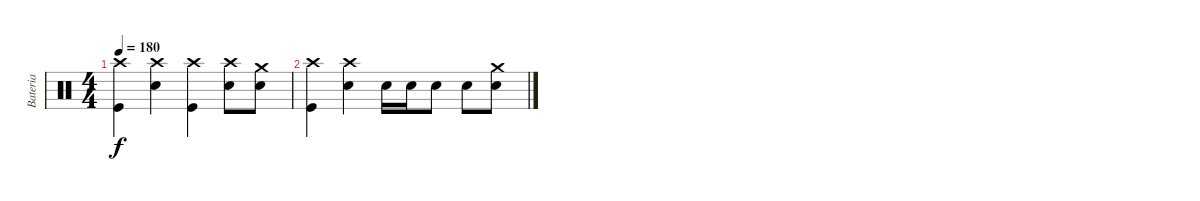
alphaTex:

\track ("Bateria" "Bateria") {instrument percussion}
\staff {score}
\articulation defaults
\ts (4 4)
\tempo 180
\clef neutral
\ks c
("Crash high (hit)" "Kick (hit)").4{dy f} ("Crash high (hit)" "Electric Snare (hit)").4 ("Crash high (hit)" "Kick (hit)").4 ("Crash high (hit)" "Electric Snare (hit)").8 ("Crash medium (hit)" "Electric Snare (hit)").8 |
("Crash high (hit)" "Kick (hit)").4 ("Crash high (hit)" "Electric Snare (hit)").4 "Electric Snare (hit)".16 "Electric Snare (hit)".16 "Electric Snare (hit)".8 "Electric Snare (hit)".8 ("Crash medium (hit)" "Electric Snare (hit)").8
